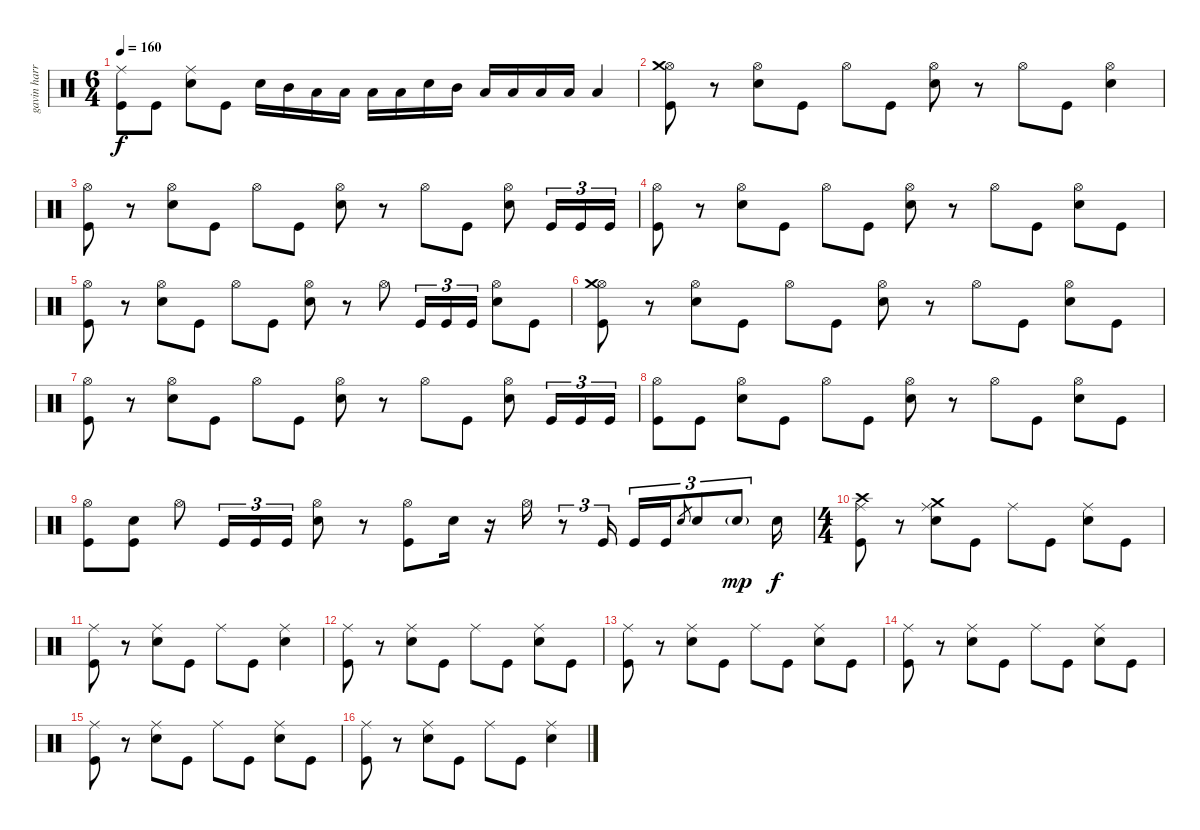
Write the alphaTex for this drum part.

\track ("gavin harrison ( drum ) " "gavin harr") {instrument percussion}
\staff {score}
\articulation defaults
\ts (6 4)
\tempo 160
\clef neutral
\ks c
("Ride (middle)" "Kick (hit)").8{dy f} "Kick (hit)".8 ("Ride (middle)" "Snare (hit) 2").8 "Kick (hit)".8 "Snare (hit) 2".16 "Mid Tom (hit)".16 "Low Floor Tom (hit)".16 "Low Floor Tom (hit)".16 "Low Floor Tom (hit)".16 "Low Floor Tom (hit)".16 "Snare (hit) 2".16 "Mid Tom (hit)".16 "Low Floor Tom (hit)".16 "Low Floor Tom (hit)".16 "Low Floor Tom (hit)".16 "Low Floor Tom (hit)".16 "Low Floor Tom (hit)".4 |
("Hi-Hat (open)" "Crash medium (hit)" "Kick (hit)").8 r.8 ("Hi-Hat (open)" "Snare (hit) 2").8 "Kick (hit)".8 "Hi-Hat (open)".8 "Kick (hit)".8 ("Hi-Hat (open)" "Snare (hit) 2").8 r.8 "Hi-Hat (open)".8 "Kick (hit)".8 ("Hi-Hat (open)" "Snare (hit) 2").4 |
("Hi-Hat (open)" "Kick (hit)").8 r.8 ("Hi-Hat (open)" "Snare (hit) 2").8 "Kick (hit)".8 "Hi-Hat (open)".8 "Kick (hit)".8 ("Hi-Hat (open)" "Snare (hit) 2").8 r.8 "Hi-Hat (open)".8 "Kick (hit)".8 ("Hi-Hat (open)" "Snare (hit) 2").8 "Kick (hit)".16{tu (3 2)} "Kick (hit)".16{tu (3 2)} "Kick (hit)".16{tu (3 2)} |
("Hi-Hat (open)" "Kick (hit)").8 r.8 ("Hi-Hat (open)" "Snare (hit) 2").8 "Kick (hit)".8 "Hi-Hat (open)".8 "Kick (hit)".8 ("Hi-Hat (open)" "Snare (hit) 2").8 r.8 "Hi-Hat (open)".8 "Kick (hit)".8 ("Hi-Hat (open)" "Snare (hit) 2").8 "Kick (hit)".8 |
("Hi-Hat (open)" "Kick (hit)").8 r.8 ("Hi-Hat (open)" "Snare (hit) 2").8 "Kick (hit)".8 "Hi-Hat (open)".8 "Kick (hit)".8 ("Hi-Hat (open)" "Snare (hit) 2").8 r.8 "Hi-Hat (open)".8 "Kick (hit)".16{tu (3 2)} "Kick (hit)".16{tu (3 2)} "Kick (hit)".16{tu (3 2)} ("Hi-Hat (open)" "Snare (hit) 2").8 "Kick (hit)".8 |
("Hi-Hat (open)" "Crash medium (hit)" "Kick (hit)").8 r.8 ("Hi-Hat (open)" "Snare (hit) 2").8 "Kick (hit)".8 "Hi-Hat (open)".8 "Kick (hit)".8 ("Hi-Hat (open)" "Snare (hit) 2").8 r.8 "Hi-Hat (open)".8 "Kick (hit)".8 ("Hi-Hat (open)" "Snare (hit) 2").8 "Kick (hit)".8 |
("Hi-Hat (open)" "Kick (hit)").8 r.8 ("Hi-Hat (open)" "Snare (hit) 2").8 "Kick (hit)".8 "Hi-Hat (open)".8 "Kick (hit)".8 ("Hi-Hat (open)" "Snare (hit) 2").8 r.8 "Hi-Hat (open)".8 "Kick (hit)".8 ("Hi-Hat (open)" "Snare (hit) 2").8 "Kick (hit)".16{tu (3 2)} "Kick (hit)".16{tu (3 2)} "Kick (hit)".16{tu (3 2)} |
("Hi-Hat (open)" "Kick (hit)").8 "Kick (hit)".8 ("Hi-Hat (open)" "Snare (hit) 2").8 "Kick (hit)".8 "Hi-Hat (open)".8 "Kick (hit)".8 ("Hi-Hat (open)" "Snare (hit) 2").8 r.8 "Hi-Hat (open)".8 "Kick (hit)".8 ("Hi-Hat (open)" "Snare (hit) 2").8 "Kick (hit)".8 |
("Hi-Hat (open)" "Kick (hit)").8 ("Snare (hit) 2" "Kick (hit)").8 "Hi-Hat (open)".8 "Kick (hit)".16{tu (3 2)} "Kick (hit)".16{tu (3 2)} "Kick (hit)".16{tu (3 2)} ("Hi-Hat (open)" "Snare (hit) 2").8 r.8 ("Hi-Hat (open)" "Kick (hit)").8 "Snare (hit) 2".16 r.16 "Hi-Hat (open)".16 r.8{tu (3 2)} "Kick (hit)".16{tu (3 2) beam splitsecondary} "Kick (hit)".16{tu (3 2)} "Kick (hit)".16{tu (3 2)} "Snare (hit) 2".8{gr} "Snare (hit) 2".8{tu (3 2)} "Snare (hit) 2"{g}.8{tu (3 2) dy mp} "Snare (hit) 2".16{dy f} |
\ts (4 4)
("Ride (middle)" "Crash high (hit)" "Kick (hit)").8 r.8 ("Ride (middle)" "Crash medium (hit)" "Snare (hit) 2").8 "Kick (hit)".8 "Ride (middle)".8 "Kick (hit)".8 ("Ride (middle)" "Snare (hit) 2").8 "Kick (hit)".8 |
("Ride (middle)" "Kick (hit)").8 r.8 ("Ride (middle)" "Snare (hit) 2").8 "Kick (hit)".8 "Ride (middle)".8 "Kick (hit)".8 ("Ride (middle)" "Snare (hit) 2").4 |
("Ride (middle)" "Kick (hit)").8 r.8 ("Ride (middle)" "Snare (hit) 2").8 "Kick (hit)".8 "Ride (middle)".8 "Kick (hit)".8 ("Ride (middle)" "Snare (hit) 2").8 "Kick (hit)".8 |
("Ride (middle)" "Kick (hit)").8 r.8 ("Ride (middle)" "Snare (hit) 2").8 "Kick (hit)".8 "Ride (middle)".8 "Kick (hit)".8 ("Ride (middle)" "Snare (hit) 2").8 "Kick (hit)".8 |
("Ride (middle)" "Kick (hit)").8 r.8 ("Ride (middle)" "Snare (hit) 2").8 "Kick (hit)".8 "Ride (middle)".8 "Kick (hit)".8 ("Ride (middle)" "Snare (hit) 2").8 "Kick (hit)".8 |
("Ride (middle)" "Kick (hit)").8 r.8 ("Ride (middle)" "Snare (hit) 2").8 "Kick (hit)".8 "Ride (middle)".8 "Kick (hit)".8 ("Ride (middle)" "Snare (hit) 2").8 "Kick (hit)".8 |
("Ride (middle)" "Kick (hit)").8 r.8 ("Ride (middle)" "Snare (hit) 2").8 "Kick (hit)".8 "Ride (middle)".8 "Kick (hit)".8 ("Ride (middle)" "Snare (hit) 2").4
